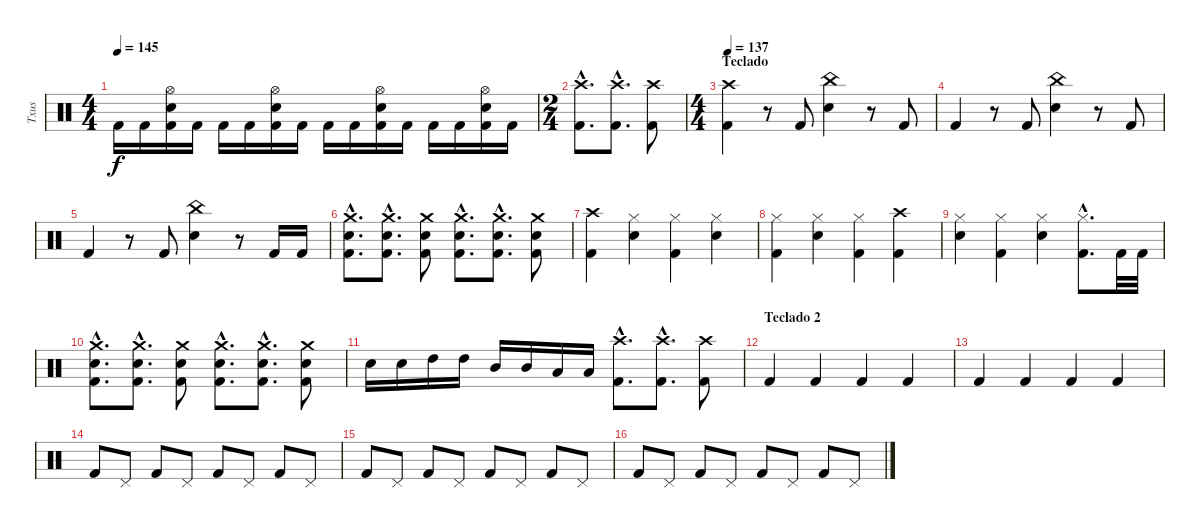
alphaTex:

\track ("Txus" "Txus") {instrument percussion}
\staff {score}
\articulation defaults
\ts (4 4)
\tempo 145
\clef neutral
\ks c "Kick (hit) 2".16{dy f} "Kick (hit) 2".16
("Kick (hit) 2" "Electric Snare (hit)" "Hi-Hat (open)").16 "Kick (hit) 2".16 "Kick (hit) 2".16 "Kick (hit) 2".16 ("Kick (hit) 2" "Electric Snare (hit)" "Hi-Hat (open)").16 "Kick (hit) 2".16 "Kick (hit) 2".16 "Kick (hit) 2".16 ("Kick (hit) 2" "Electric Snare (hit)" "Hi-Hat (open)").16 "Kick (hit) 2".16 "Kick (hit) 2".16 "Kick (hit) 2".16 ("Kick (hit) 2" "Electric Snare (hit)" "Hi-Hat (open)").16 "Kick (hit) 2".16 |
\ts (2 4)
("Kick (hit) 2"{hac} "Crash high (hit)"{hac}).8{d} ("Kick (hit) 2"{hac} "Crash high (hit)"{hac}).8{d} ("Kick (hit) 2" "Crash high (hit)").8 |
\ts (4 4)
\section ("" "Teclado")
\tempo 137
("Kick (hit) 2" "Crash high (hit)").4 r.8 "Kick (hit) 2".8 ("Electric Snare (hit)" "China (hit)").4 r.8 "Kick (hit) 2".8 |
"Kick (hit) 2".4 r.8 "Kick (hit) 2".8 ("Electric Snare (hit)" "China (hit)").4 r.8 "Kick (hit) 2".8 |
"Kick (hit) 2".4 r.8 "Kick (hit) 2".8 ("Electric Snare (hit)" "China (hit)").4 r.8 "Kick (hit) 2".16 "Kick (hit) 2".16 |
("Kick (hit) 2"{hac} "Electric Snare (hit)"{hac} "Crash medium (hit)"{hac}).8{d} ("Kick (hit) 2"{hac} "Electric Snare (hit)"{hac} "Crash medium (hit)"{hac}).8{d} ("Kick (hit) 2" "Electric Snare (hit)" "Crash medium (hit)").8 ("Kick (hit) 2"{hac} "Electric Snare (hit)"{hac} "Crash medium (hit)"{hac}).8{d} ("Kick (hit) 2"{hac} "Electric Snare (hit)"{hac} "Crash medium (hit)"{hac}).8{d} ("Kick (hit) 2" "Electric Snare (hit)" "Crash medium (hit)").8 |
("Kick (hit) 2" "Crash high (hit)").4 ("Electric Snare (hit)" "Hi-Hat (closed)").4 ("Kick (hit) 2" "Hi-Hat (closed)").4 ("Electric Snare (hit)" "Hi-Hat (closed)").4 |
("Kick (hit) 2" "Hi-Hat (closed)").4 ("Electric Snare (hit)" "Hi-Hat (closed)").4 ("Kick (hit) 2" "Hi-Hat (closed)").4 ("Kick (hit) 2" "Crash high (hit)").4 |
("Electric Snare (hit)" "Hi-Hat (closed)").4 ("Kick (hit) 2" "Hi-Hat (closed)").4 ("Electric Snare (hit)" "Hi-Hat (closed)").4 ("Kick (hit) 2"{hac} "Hi-Hat (closed)"{hac}).8{d} "Kick (hit) 2".32 "Kick (hit) 2".32 |
("Kick (hit) 2"{hac} "Electric Snare (hit)"{hac} "Crash medium (hit)"{hac}).8{d} ("Kick (hit) 2"{hac} "Electric Snare (hit)"{hac} "Crash medium (hit)"{hac}).8{d} ("Kick (hit) 2" "Electric Snare (hit)" "Crash medium (hit)").8 ("Kick (hit) 2"{hac} "Electric Snare (hit)"{hac} "Crash medium (hit)"{hac}).8{d} ("Kick (hit) 2"{hac} "Electric Snare (hit)"{hac} "Crash medium (hit)"{hac}).8{d} ("Kick (hit) 2" "Electric Snare (hit)" "Crash medium (hit)").8 |
"Electric Snare (hit)".16 "Electric Snare (hit)".16 "High Tom (hit)".16 "High Tom (hit)".16 "Mid Tom (hit)".16 "Mid Tom (hit)".16 "Low Tom (hit)".16 "Low Tom (hit)".16 ("Kick (hit) 2"{hac} "Crash high (hit)"{hac}).8{d} ("Kick (hit) 2"{hac} "Crash high (hit)"{hac}).8{d} ("Kick (hit) 2" "Crash high (hit)").8 |
\section ("" "Teclado 2")
"Kick (hit) 2".4 "Kick (hit) 2".4 "Kick (hit) 2".4 "Kick (hit) 2".4 |
"Kick (hit) 2".4 "Kick (hit) 2".4 "Kick (hit) 2".4 "Kick (hit) 2".4 |
"Kick (hit) 2".8 "Pedal Hi-Hat (hit)".8 "Kick (hit) 2".8 "Pedal Hi-Hat (hit)".8 "Kick (hit) 2".8 "Pedal Hi-Hat (hit)".8 "Kick (hit) 2".8 "Pedal Hi-Hat (hit)".8 |
"Kick (hit) 2".8 "Pedal Hi-Hat (hit)".8 "Kick (hit) 2".8 "Pedal Hi-Hat (hit)".8 "Kick (hit) 2".8 "Pedal Hi-Hat (hit)".8 "Kick (hit) 2".8 "Pedal Hi-Hat (hit)".8 |
"Kick (hit) 2".8 "Pedal Hi-Hat (hit)".8 "Kick (hit) 2".8 "Pedal Hi-Hat (hit)".8 "Kick (hit) 2".8 "Pedal Hi-Hat (hit)".8 "Kick (hit) 2".8 "Pedal Hi-Hat (hit)".8
